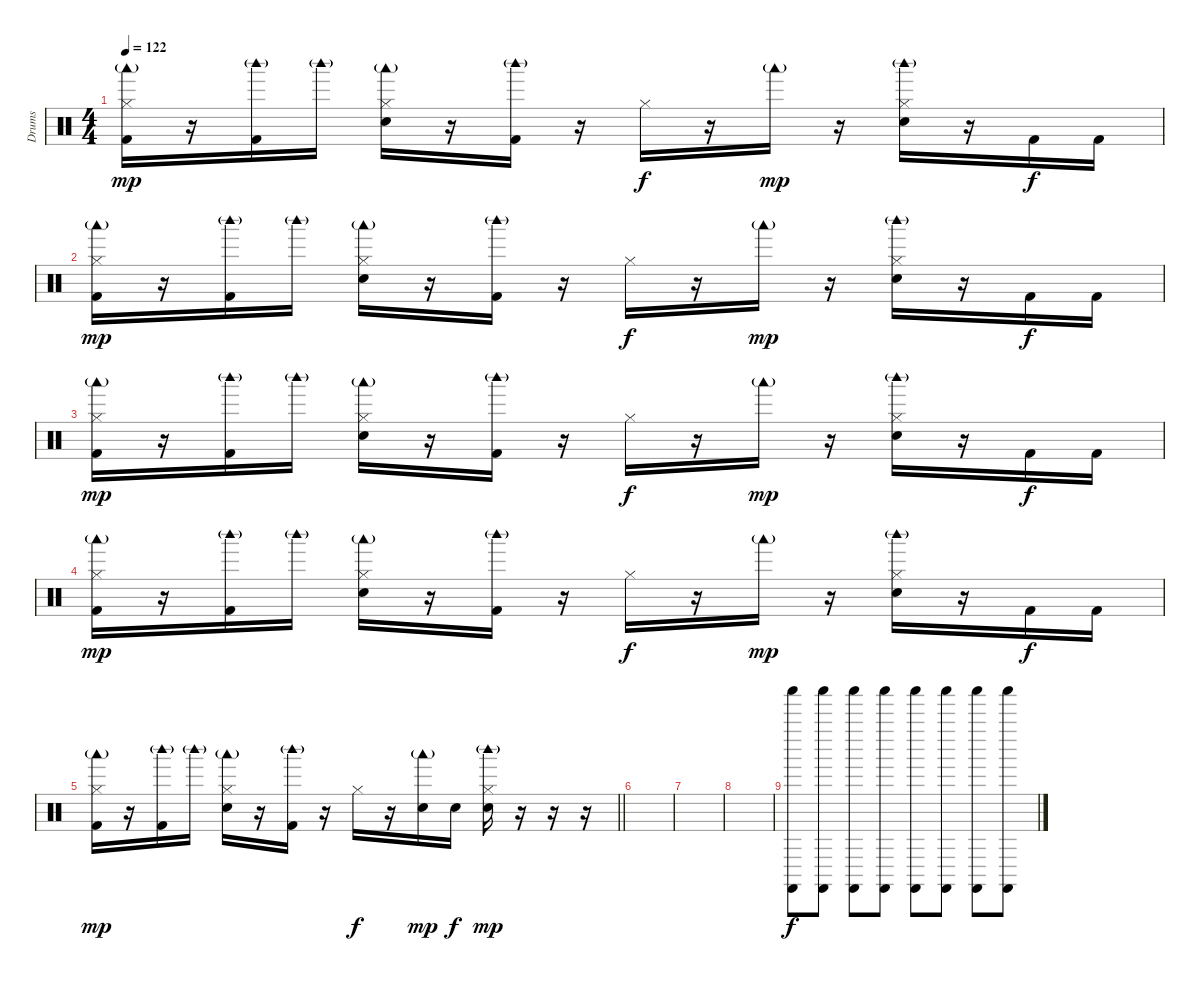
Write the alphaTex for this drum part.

\track ("Drums" "Drums") {instrument percussion}
\staff {score}
\articulation defaults
\ts (4 4)
\tempo 122
\clef neutral
\ks c
("Hi-Hat (closed)" "Woodblock low (hit)"{g} "Kick (hit) 2").16{dy mp} r.16 ("Woodblock high (hit)"{g} "Kick (hit) 2").16 "Woodblock high (hit)"{g}.16 ("Hi-Hat (closed)" "Hand Clap (hit)" "Woodblock low (hit)"{g}).16 r.16 ("Woodblock high (hit)"{g} "Kick (hit) 2").16 r.16 "Hi-Hat (closed)".16{dy f} r.16 "Woodblock low (hit)"{g}.16{dy mp} r.16 ("Hi-Hat (closed)" "Hand Clap (hit)" "Woodblock high (hit)"{g}).16 r.16 "Kick (hit) 2".16{dy f} "Kick (hit) 2".16 |
("Hi-Hat (closed)" "Woodblock low (hit)"{g} "Kick (hit) 2").16{dy mp} r.16 ("Woodblock high (hit)"{g} "Kick (hit) 2").16 "Woodblock high (hit)"{g}.16 ("Hi-Hat (closed)" "Hand Clap (hit)" "Woodblock low (hit)"{g}).16 r.16 ("Woodblock high (hit)"{g} "Kick (hit) 2").16 r.16 "Hi-Hat (closed)".16{dy f} r.16 "Woodblock low (hit)"{g}.16{dy mp} r.16 ("Hi-Hat (closed)" "Hand Clap (hit)" "Woodblock high (hit)"{g}).16 r.16 "Kick (hit) 2".16{dy f} "Kick (hit) 2".16 |
("Hi-Hat (closed)" "Woodblock low (hit)"{g} "Kick (hit) 2").16{dy mp} r.16 ("Woodblock high (hit)"{g} "Kick (hit) 2").16 "Woodblock high (hit)"{g}.16 ("Hi-Hat (closed)" "Hand Clap (hit)" "Woodblock low (hit)"{g}).16 r.16 ("Woodblock high (hit)"{g} "Kick (hit) 2").16 r.16 "Hi-Hat (closed)".16{dy f} r.16 "Woodblock low (hit)"{g}.16{dy mp} r.16 ("Hi-Hat (closed)" "Hand Clap (hit)" "Woodblock high (hit)"{g}).16 r.16 "Kick (hit) 2".16{dy f} "Kick (hit) 2".16 |
("Hi-Hat (closed)" "Woodblock low (hit)"{g} "Kick (hit) 2").16{dy mp} r.16 ("Woodblock high (hit)"{g} "Kick (hit) 2").16 "Woodblock high (hit)"{g}.16 ("Hi-Hat (closed)" "Hand Clap (hit)" "Woodblock low (hit)"{g}).16 r.16 ("Woodblock high (hit)"{g} "Kick (hit) 2").16 r.16 "Hi-Hat (closed)".16{dy f} r.16 "Woodblock low (hit)"{g}.16{dy mp} r.16 ("Hi-Hat (closed)" "Hand Clap (hit)" "Woodblock high (hit)"{g}).16 r.16 "Kick (hit) 2".16{dy f} "Kick (hit) 2".16 |
\barLineRight lightlight
("Hi-Hat (closed)" "Woodblock low (hit)"{g} "Kick (hit) 2").16{dy mp} r.16 ("Woodblock high (hit)"{g} "Kick (hit) 2").16 "Woodblock high (hit)"{g}.16 ("Hi-Hat (closed)" "Hand Clap (hit)" "Woodblock low (hit)"{g}).16 r.16 ("Woodblock high (hit)"{g} "Kick (hit) 2").16 r.16 "Hi-Hat (closed)".16{dy f} r.16 ("Hand Clap (hit)" "Woodblock low (hit)"{g}).16{dy mp} "Hand Clap (hit)".16{dy f} ("Hi-Hat (closed)" "Hand Clap (hit)" "Woodblock high (hit)"{g}).16{dy mp} r.16 r.16 r.16 |
|
|
|
("Shaker (hit)" "Castanets (hit)").8{dy f} ("Shaker (hit)" "Castanets (hit)").8 ("Shaker (hit)" "Castanets (hit)").8 ("Shaker (hit)" "Castanets (hit)").8 ("Shaker (hit)" "Castanets (hit)").8 ("Shaker (hit)" "Castanets (hit)").8 ("Shaker (hit)" "Castanets (hit)").8 ("Shaker (hit)" "Castanets (hit)").8
